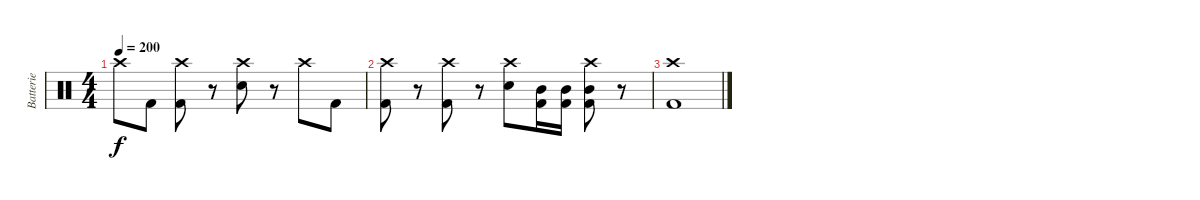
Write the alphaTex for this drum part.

\track ("Batterie" "Batterie") {instrument percussion}
\staff {score}
\articulation defaults
\ts (4 4)
\tempo 200
\clef neutral
\ks c "Crash high (hit)".8{dy f} "Kick (hit) 2".8
("Crash high (hit)" "Kick (hit) 2").8 r.8 ("Crash high (hit)" "Electric Snare (hit)").8 r.8 "Crash high (hit)".8 "Kick (hit) 2".8 |
("Crash high (hit)" "Kick (hit) 2").8 r.8 ("Crash high (hit)" "Kick (hit) 2").8 r.8 ("Crash high (hit)" "Electric Snare (hit)").8 ("Mid Tom (hit)" "Kick (hit) 2").16 ("Mid Tom (hit)" "Kick (hit) 2").16 ("Crash high (hit)" "Mid Tom (hit)" "Kick (hit) 2").8 r.8 |
("Crash high (hit)" "Kick (hit) 2").1
